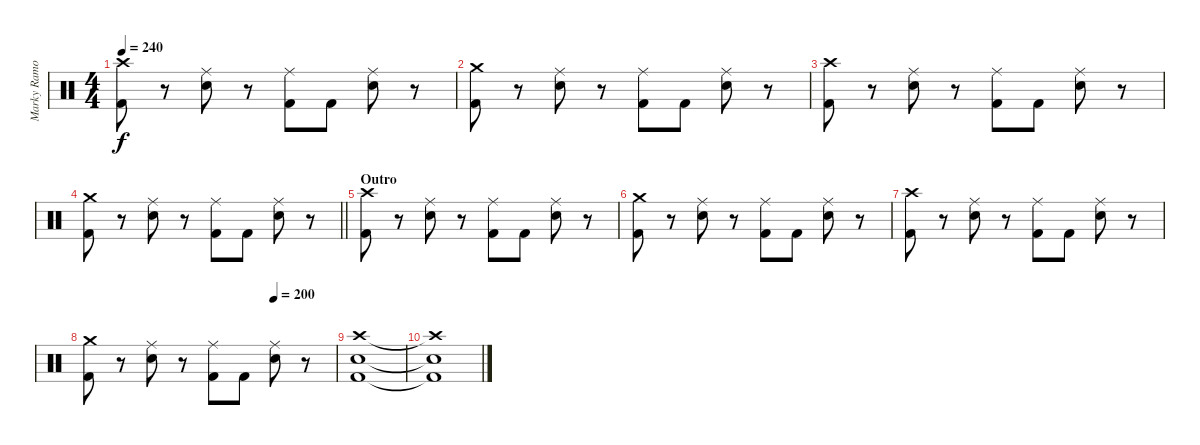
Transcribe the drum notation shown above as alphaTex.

\track ("Marky Ramone" "Marky Ramo") {instrument percussion}
\staff {score}
\articulation defaults
\ts (4 4)
\tempo 240
\clef neutral
\ks c
("Kick (hit) 2" "Crash high (hit)").8{dy f} r.8 ("Electric Snare (hit)" "Ride (middle)").8 r.8 ("Kick (hit) 2" "Ride (middle)").8 "Kick (hit) 2".8 ("Electric Snare (hit)" "Ride (middle)").8 r.8 |
("Kick (hit) 2" "Crash medium (hit)").8 r.8 ("Electric Snare (hit)" "Ride (middle)").8 r.8 ("Kick (hit) 2" "Ride (middle)").8 "Kick (hit) 2".8 ("Electric Snare (hit)" "Ride (middle)").8 r.8 |
("Kick (hit) 2" "Crash high (hit)").8 r.8 ("Electric Snare (hit)" "Ride (middle)").8 r.8 ("Kick (hit) 2" "Ride (middle)").8 "Kick (hit) 2".8 ("Electric Snare (hit)" "Ride (middle)").8 r.8 |
\barLineRight lightlight
("Kick (hit) 2" "Crash medium (hit)").8 r.8 ("Electric Snare (hit)" "Ride (middle)").8 r.8 ("Kick (hit) 2" "Ride (middle)").8 "Kick (hit) 2".8 ("Electric Snare (hit)" "Ride (middle)").8 r.8 |
\section ("" "Outro")
("Kick (hit) 2" "Crash high (hit)").8 r.8 ("Electric Snare (hit)" "Ride (middle)").8 r.8 ("Kick (hit) 2" "Ride (middle)").8 "Kick (hit) 2".8 ("Electric Snare (hit)" "Ride (middle)").8 r.8 |
("Kick (hit) 2" "Crash medium (hit)").8 r.8 ("Electric Snare (hit)" "Ride (middle)").8 r.8 ("Kick (hit) 2" "Ride (middle)").8 "Kick (hit) 2".8 ("Electric Snare (hit)" "Ride (middle)").8 r.8 |
("Kick (hit) 2" "Crash high (hit)").8 r.8 ("Electric Snare (hit)" "Ride (middle)").8 r.8 ("Kick (hit) 2" "Ride (middle)").8 "Kick (hit) 2".8 ("Electric Snare (hit)" "Ride (middle)").8 r.8 |
\tempo (200 0.75)
("Kick (hit) 2" "Crash medium (hit)").8 r.8 ("Electric Snare (hit)" "Ride (middle)").8 r.8 ("Kick (hit) 2" "Ride (middle)").8 "Kick (hit) 2".8 ("Electric Snare (hit)" "Ride (middle)").8 r.8 |
("Kick (hit) 2" "Electric Snare (hit)" "Crash high (hit)").1 |
("Kick (hit) 2"{t} "Electric Snare (hit)"{t} "Crash high (hit)"{t}).1
